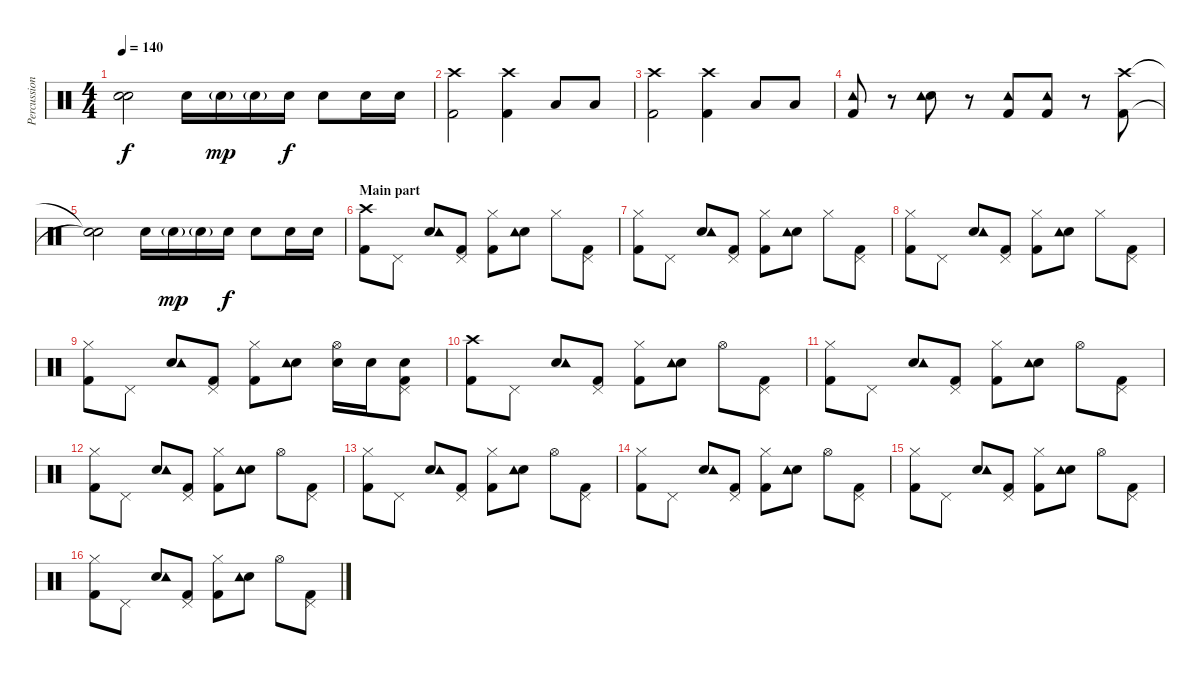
\track ("Percussion" "Percussion") {instrument percussion}
\staff {score}
\articulation defaults
\ts (4 4)
\tempo 140
\clef neutral
\ks c
("Snare (hit)"{t} "Snare (hit)"{t}).2{dy f} "Electric Snare (hit)".16 "Electric Snare (hit)"{g}.16{dy mp} "Electric Snare (hit)"{g}.16 "Electric Snare (hit)".16{dy f} "Electric Snare (hit)".8 "Electric Snare (hit)".16 "Electric Snare (hit)".16 |
("Kick (hit) 2" "Crash high (hit)").2 ("Kick (hit) 2" "Crash high (hit)").4 "Low Tom (hit)".8 "Low Tom (hit)".8 |
("Kick (hit) 2" "Crash high (hit)").2 ("Kick (hit) 2" "Crash high (hit)").4 "Low Floor Tom (hit)".8 "Low Tom (hit)".8 |
("Kick (hit) 2" "Tambourine (hit)").8 r.8 ("Electric Snare (hit)" "Tambourine (hit)").8 r.8 ("Kick (hit) 2" "Tambourine (hit)").8 ("Kick (hit) 2" "Tambourine (hit)").8 r.8 ("Kick (hit) 2" "Crash high (hit)").8 |
("Snare (hit)"{t} "Snare (hit)"{t}).2 "Electric Snare (hit)".16 "Electric Snare (hit)"{g}.16{dy mp} "Electric Snare (hit)"{g}.16 "Electric Snare (hit)".16{dy f} "Electric Snare (hit)".8 "Electric Snare (hit)".16 "Electric Snare (hit)".16 |
\section ("" "Main part")
("Kick (hit) 2" "Crash high (hit)").8 "Pedal Hi-Hat (hit)".8 ("Electric Snare (hit)" "Tambourine (hit)").8 ("Kick (hit) 2" "Pedal Hi-Hat (hit)").8 ("Kick (hit) 2" "Hi-Hat (closed)").8 ("Electric Snare (hit)" "Tambourine (hit)").8 "Hi-Hat (closed)".8 ("Kick (hit) 2" "Pedal Hi-Hat (hit)").8 |
("Kick (hit) 2" "Hi-Hat (closed)").8 "Pedal Hi-Hat (hit)".8 ("Electric Snare (hit)" "Tambourine (hit)").8 ("Kick (hit) 2" "Pedal Hi-Hat (hit)").8 ("Kick (hit) 2" "Hi-Hat (closed)").8 ("Electric Snare (hit)" "Tambourine (hit)").8 "Hi-Hat (closed)".8 ("Kick (hit) 2" "Pedal Hi-Hat (hit)").8 |
("Kick (hit) 2" "Hi-Hat (closed)").8 "Pedal Hi-Hat (hit)".8 ("Electric Snare (hit)" "Tambourine (hit)").8 ("Kick (hit) 2" "Pedal Hi-Hat (hit)").8 ("Kick (hit) 2" "Hi-Hat (closed)").8 ("Electric Snare (hit)" "Tambourine (hit)").8 "Hi-Hat (closed)".8 ("Kick (hit) 2" "Pedal Hi-Hat (hit)").8 |
("Kick (hit) 2" "Hi-Hat (closed)").8 "Pedal Hi-Hat (hit)".8 ("Electric Snare (hit)" "Tambourine (hit)").8 ("Kick (hit) 2" "Pedal Hi-Hat (hit)").8 ("Kick (hit) 2" "Hi-Hat (closed)").8 ("Electric Snare (hit)" "Tambourine (hit)").8 ("Electric Snare (hit)" "Hi-Hat (open)").16 "Electric Snare (hit)".16 ("Kick (hit) 2" "Electric Snare (hit)" "Pedal Hi-Hat (hit)").8 |
("Kick (hit) 2" "Crash high (hit)").8 "Pedal Hi-Hat (hit)".8 ("Electric Snare (hit)" "Tambourine (hit)").8 ("Kick (hit) 2" "Pedal Hi-Hat (hit)").8 ("Kick (hit) 2" "Hi-Hat (closed)").8 ("Electric Snare (hit)" "Tambourine (hit)").8 "Hi-Hat (open)".8 ("Kick (hit) 2" "Pedal Hi-Hat (hit)").8 |
("Kick (hit) 2" "Hi-Hat (closed)").8 "Pedal Hi-Hat (hit)".8 ("Electric Snare (hit)" "Tambourine (hit)").8 ("Kick (hit) 2" "Pedal Hi-Hat (hit)").8 ("Kick (hit) 2" "Hi-Hat (closed)").8 ("Electric Snare (hit)" "Tambourine (hit)").8 "Hi-Hat (open)".8 ("Kick (hit) 2" "Pedal Hi-Hat (hit)").8 |
("Kick (hit) 2" "Hi-Hat (closed)").8 "Pedal Hi-Hat (hit)".8 ("Electric Snare (hit)" "Tambourine (hit)").8 ("Kick (hit) 2" "Pedal Hi-Hat (hit)").8 ("Kick (hit) 2" "Hi-Hat (closed)").8 ("Electric Snare (hit)" "Tambourine (hit)").8 "Hi-Hat (open)".8 ("Kick (hit) 2" "Pedal Hi-Hat (hit)").8 |
("Kick (hit) 2" "Hi-Hat (closed)").8 "Pedal Hi-Hat (hit)".8 ("Electric Snare (hit)" "Tambourine (hit)").8 ("Kick (hit) 2" "Pedal Hi-Hat (hit)").8 ("Kick (hit) 2" "Hi-Hat (closed)").8 ("Electric Snare (hit)" "Tambourine (hit)").8 "Hi-Hat (open)".8 ("Kick (hit) 2" "Pedal Hi-Hat (hit)").8 |
("Kick (hit) 2" "Hi-Hat (closed)").8 "Pedal Hi-Hat (hit)".8 ("Electric Snare (hit)" "Tambourine (hit)").8 ("Kick (hit) 2" "Pedal Hi-Hat (hit)").8 ("Kick (hit) 2" "Hi-Hat (closed)").8 ("Electric Snare (hit)" "Tambourine (hit)").8 "Hi-Hat (open)".8 ("Kick (hit) 2" "Pedal Hi-Hat (hit)").8 |
("Kick (hit) 2" "Hi-Hat (closed)").8 "Pedal Hi-Hat (hit)".8 ("Electric Snare (hit)" "Tambourine (hit)").8 ("Kick (hit) 2" "Pedal Hi-Hat (hit)").8 ("Kick (hit) 2" "Hi-Hat (closed)").8 ("Electric Snare (hit)" "Tambourine (hit)").8 "Hi-Hat (open)".8 ("Kick (hit) 2" "Pedal Hi-Hat (hit)").8 |
("Kick (hit) 2" "Hi-Hat (closed)").8 "Pedal Hi-Hat (hit)".8 ("Electric Snare (hit)" "Tambourine (hit)").8 ("Kick (hit) 2" "Pedal Hi-Hat (hit)").8 ("Kick (hit) 2" "Hi-Hat (closed)").8 ("Electric Snare (hit)" "Tambourine (hit)").8 "Hi-Hat (open)".8 ("Kick (hit) 2" "Pedal Hi-Hat (hit)").8
